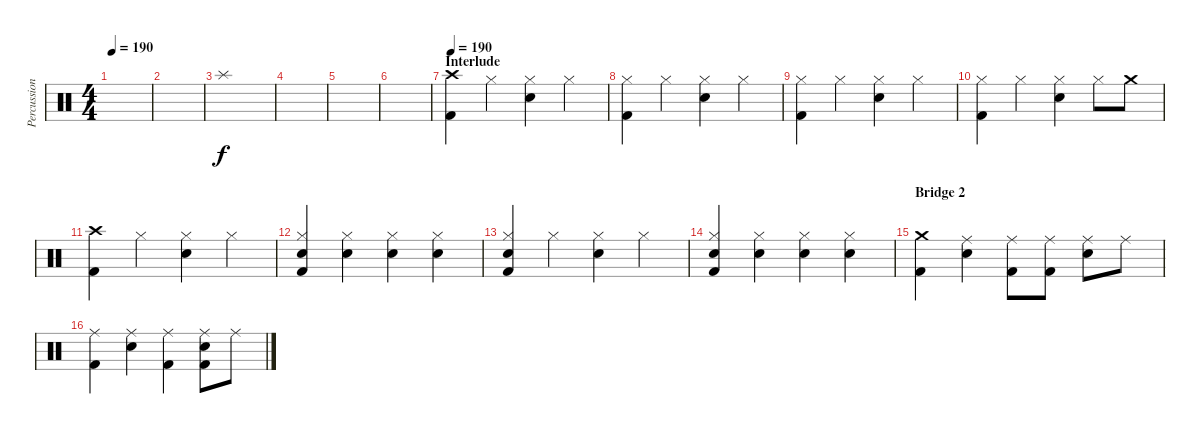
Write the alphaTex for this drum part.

\track ("Percussion" "Percussion") {instrument percussion}
\staff {score}
\articulation defaults
\ts (4 4)
\tempo 190
\clef neutral
\ks c
|
|
"Splash (hit)".1{dy f} |
|
|
|
\section ("" "Interlude")
\tempo 190
("Crash high (hit)" "Kick (hit) 2").4 "Hi-Hat (closed)".4 ("Hi-Hat (closed)" "Electric Snare (hit)").4 "Hi-Hat (closed)".4 |
("Hi-Hat (closed)" "Kick (hit) 2").4 "Hi-Hat (closed)".4 ("Hi-Hat (closed)" "Electric Snare (hit)").4 "Hi-Hat (closed)".4 |
("Hi-Hat (closed)" "Kick (hit) 2").4 "Hi-Hat (closed)".4 ("Hi-Hat (closed)" "Electric Snare (hit)").4 "Hi-Hat (closed)".4 |
("Hi-Hat (closed)" "Kick (hit) 2").4 "Hi-Hat (closed)".4 ("Hi-Hat (closed)" "Electric Snare (hit)").4 "Hi-Hat (closed)".8 "Crash medium (hit)".8 |
("Crash high (hit)" "Kick (hit) 2").4 "Hi-Hat (closed)".4 ("Hi-Hat (closed)" "Electric Snare (hit)").4 "Hi-Hat (closed)".4 |
("Hi-Hat (closed)" "Electric Snare (hit)" "Kick (hit) 2").4 ("Hi-Hat (closed)" "Electric Snare (hit)").4 ("Hi-Hat (closed)" "Electric Snare (hit)").4 ("Hi-Hat (closed)" "Electric Snare (hit)").4 |
("Hi-Hat (closed)" "Electric Snare (hit)" "Kick (hit) 2").4 "Hi-Hat (closed)".4 ("Hi-Hat (closed)" "Electric Snare (hit)").4 "Hi-Hat (closed)".4 |
("Hi-Hat (closed)" "Electric Snare (hit)" "Kick (hit) 2").4 ("Hi-Hat (closed)" "Electric Snare (hit)").4 ("Hi-Hat (closed)" "Electric Snare (hit)").4 ("Hi-Hat (closed)" "Electric Snare (hit)").4 |
\section ("" "Bridge 2")
("Crash medium (hit)" "Kick (hit) 2").4 ("Ride (middle)" "Electric Snare (hit)").4 ("Ride (middle)" "Kick (hit) 2").8 ("Ride (middle)" "Kick (hit) 2").8 ("Ride (middle)" "Electric Snare (hit)").8 "Ride (middle)".8 |
("Ride (middle)" "Kick (hit) 2").4 ("Ride (middle)" "Electric Snare (hit)").4 ("Ride (middle)" "Kick (hit) 2").4 ("Ride (middle)" "Electric Snare (hit)" "Kick (hit) 2").8 "Ride (middle)".8
